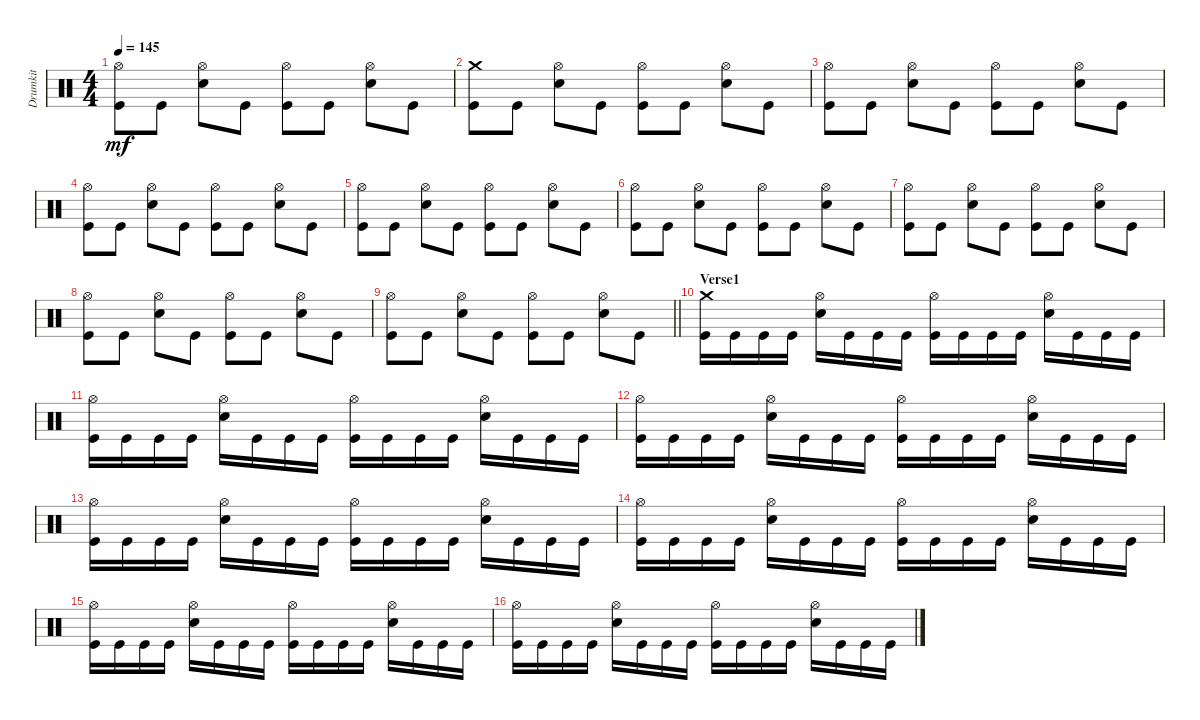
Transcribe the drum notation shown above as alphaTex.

\track ("Drumkit" "Drumkit") {instrument percussion}
\staff {score}
\articulation defaults
\ts (4 4)
\tempo 145
\clef neutral
\ks c
("Kick (hit)" "Hi-Hat (open)").8{dy mf} "Kick (hit)".8 ("Snare (hit) 2" "Hi-Hat (open)").8 "Kick (hit)".8 ("Kick (hit)" "Hi-Hat (open)").8 "Kick (hit)".8 ("Snare (hit) 2" "Hi-Hat (open)").8 "Kick (hit)".8 |
("Kick (hit)" "Crash medium (hit)").8 "Kick (hit)".8 ("Snare (hit) 2" "Hi-Hat (open)").8 "Kick (hit)".8 ("Kick (hit)" "Hi-Hat (open)").8 "Kick (hit)".8 ("Snare (hit) 2" "Hi-Hat (open)").8 "Kick (hit)".8 |
("Kick (hit)" "Hi-Hat (open)").8 "Kick (hit)".8 ("Snare (hit) 2" "Hi-Hat (open)").8 "Kick (hit)".8 ("Kick (hit)" "Hi-Hat (open)").8 "Kick (hit)".8 ("Snare (hit) 2" "Hi-Hat (open)").8 "Kick (hit)".8 |
("Kick (hit)" "Hi-Hat (open)").8 "Kick (hit)".8 ("Snare (hit) 2" "Hi-Hat (open)").8 "Kick (hit)".8 ("Kick (hit)" "Hi-Hat (open)").8 "Kick (hit)".8 ("Snare (hit) 2" "Hi-Hat (open)").8 "Kick (hit)".8 |
("Kick (hit)" "Hi-Hat (open)").8 "Kick (hit)".8 ("Snare (hit) 2" "Hi-Hat (open)").8 "Kick (hit)".8 ("Kick (hit)" "Hi-Hat (open)").8 "Kick (hit)".8 ("Snare (hit) 2" "Hi-Hat (open)").8 "Kick (hit)".8 |
("Kick (hit)" "Hi-Hat (open)").8 "Kick (hit)".8 ("Snare (hit) 2" "Hi-Hat (open)").8 "Kick (hit)".8 ("Kick (hit)" "Hi-Hat (open)").8 "Kick (hit)".8 ("Snare (hit) 2" "Hi-Hat (open)").8 "Kick (hit)".8 |
("Kick (hit)" "Hi-Hat (open)").8 "Kick (hit)".8 ("Snare (hit) 2" "Hi-Hat (open)").8 "Kick (hit)".8 ("Kick (hit)" "Hi-Hat (open)").8 "Kick (hit)".8 ("Snare (hit) 2" "Hi-Hat (open)").8 "Kick (hit)".8 |
("Kick (hit)" "Hi-Hat (open)").8 "Kick (hit)".8 ("Snare (hit) 2" "Hi-Hat (open)").8 "Kick (hit)".8 ("Kick (hit)" "Hi-Hat (open)").8 "Kick (hit)".8 ("Snare (hit) 2" "Hi-Hat (open)").8 "Kick (hit)".8 |
\barLineRight lightlight
("Kick (hit)" "Hi-Hat (open)").8 "Kick (hit)".8 ("Snare (hit) 2" "Hi-Hat (open)").8 "Kick (hit)".8 ("Kick (hit)" "Hi-Hat (open)").8 "Kick (hit)".8 ("Snare (hit) 2" "Hi-Hat (open)").8 "Kick (hit)".8 |
\section ("" "Verse1")
("Kick (hit)" "Crash medium (hit)").16 "Kick (hit)".16 "Kick (hit)".16 "Kick (hit)".16 ("Snare (hit) 2" "Hi-Hat (open)").16 "Kick (hit)".16 "Kick (hit)".16 "Kick (hit)".16 ("Kick (hit)" "Hi-Hat (open)").16 "Kick (hit)".16 "Kick (hit)".16 "Kick (hit)".16 ("Snare (hit) 2" "Hi-Hat (open)").16 "Kick (hit)".16 "Kick (hit)".16 "Kick (hit)".16 |
("Kick (hit)" "Hi-Hat (open)").16 "Kick (hit)".16 "Kick (hit)".16 "Kick (hit)".16 ("Snare (hit) 2" "Hi-Hat (open)").16 "Kick (hit)".16 "Kick (hit)".16 "Kick (hit)".16 ("Kick (hit)" "Hi-Hat (open)").16 "Kick (hit)".16 "Kick (hit)".16 "Kick (hit)".16 ("Snare (hit) 2" "Hi-Hat (open)").16 "Kick (hit)".16 "Kick (hit)".16 "Kick (hit)".16 |
("Kick (hit)" "Hi-Hat (open)").16 "Kick (hit)".16 "Kick (hit)".16 "Kick (hit)".16 ("Snare (hit) 2" "Hi-Hat (open)").16 "Kick (hit)".16 "Kick (hit)".16 "Kick (hit)".16 ("Kick (hit)" "Hi-Hat (open)").16 "Kick (hit)".16 "Kick (hit)".16 "Kick (hit)".16 ("Snare (hit) 2" "Hi-Hat (open)").16 "Kick (hit)".16 "Kick (hit)".16 "Kick (hit)".16 |
("Kick (hit)" "Hi-Hat (open)").16 "Kick (hit)".16 "Kick (hit)".16 "Kick (hit)".16 ("Snare (hit) 2" "Hi-Hat (open)").16 "Kick (hit)".16 "Kick (hit)".16 "Kick (hit)".16 ("Kick (hit)" "Hi-Hat (open)").16 "Kick (hit)".16 "Kick (hit)".16 "Kick (hit)".16 ("Snare (hit) 2" "Hi-Hat (open)").16 "Kick (hit)".16 "Kick (hit)".16 "Kick (hit)".16 |
("Kick (hit)" "Hi-Hat (open)").16 "Kick (hit)".16 "Kick (hit)".16 "Kick (hit)".16 ("Snare (hit) 2" "Hi-Hat (open)").16 "Kick (hit)".16 "Kick (hit)".16 "Kick (hit)".16 ("Kick (hit)" "Hi-Hat (open)").16 "Kick (hit)".16 "Kick (hit)".16 "Kick (hit)".16 ("Snare (hit) 2" "Hi-Hat (open)").16 "Kick (hit)".16 "Kick (hit)".16 "Kick (hit)".16 |
("Kick (hit)" "Hi-Hat (open)").16 "Kick (hit)".16 "Kick (hit)".16 "Kick (hit)".16 ("Snare (hit) 2" "Hi-Hat (open)").16 "Kick (hit)".16 "Kick (hit)".16 "Kick (hit)".16 ("Kick (hit)" "Hi-Hat (open)").16 "Kick (hit)".16 "Kick (hit)".16 "Kick (hit)".16 ("Snare (hit) 2" "Hi-Hat (open)").16 "Kick (hit)".16 "Kick (hit)".16 "Kick (hit)".16 |
("Kick (hit)" "Hi-Hat (open)").16 "Kick (hit)".16 "Kick (hit)".16 "Kick (hit)".16 ("Snare (hit) 2" "Hi-Hat (open)").16 "Kick (hit)".16 "Kick (hit)".16 "Kick (hit)".16 ("Kick (hit)" "Hi-Hat (open)").16 "Kick (hit)".16 "Kick (hit)".16 "Kick (hit)".16 ("Snare (hit) 2" "Hi-Hat (open)").16 "Kick (hit)".16 "Kick (hit)".16 "Kick (hit)".16
